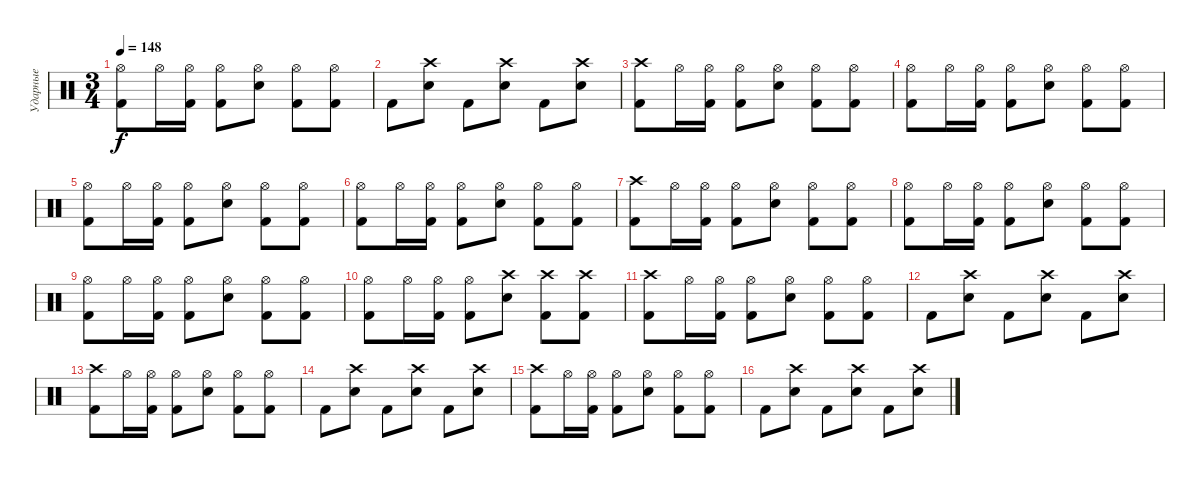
\track ("Ударные" "Ударные") {instrument percussion}
\staff {score}
\articulation defaults
\ts (3 4)
\tempo 148
\clef neutral
\ks c
("Hi-Hat (open)" "Kick (hit) 2").8{dy f} "Hi-Hat (open)".16 ("Hi-Hat (open)" "Kick (hit) 2").16 ("Hi-Hat (open)" "Kick (hit) 2").8 ("Hi-Hat (open)" "Electric Snare (hit)").8 ("Hi-Hat (open)" "Kick (hit) 2").8 ("Hi-Hat (open)" "Kick (hit) 2").8 |
"Kick (hit) 2".8 ("Crash high (hit)" "Electric Snare (hit)").8 "Kick (hit) 2".8 ("Crash high (hit)" "Electric Snare (hit)").8 "Kick (hit) 2".8 ("Crash high (hit)" "Electric Snare (hit)").8 |
("Crash high (hit)" "Kick (hit) 2").8 "Hi-Hat (open)".16 ("Hi-Hat (open)" "Kick (hit) 2").16 ("Hi-Hat (open)" "Kick (hit) 2").8 ("Hi-Hat (open)" "Electric Snare (hit)").8 ("Hi-Hat (open)" "Kick (hit) 2").8 ("Hi-Hat (open)" "Kick (hit) 2").8 |
("Hi-Hat (open)" "Kick (hit) 2").8 "Hi-Hat (open)".16 ("Hi-Hat (open)" "Kick (hit) 2").16 ("Hi-Hat (open)" "Kick (hit) 2").8 ("Hi-Hat (open)" "Electric Snare (hit)").8 ("Hi-Hat (open)" "Kick (hit) 2").8 ("Hi-Hat (open)" "Kick (hit) 2").8 |
("Hi-Hat (open)" "Kick (hit) 2").8 "Hi-Hat (open)".16 ("Hi-Hat (open)" "Kick (hit) 2").16 ("Hi-Hat (open)" "Kick (hit) 2").8 ("Hi-Hat (open)" "Electric Snare (hit)").8 ("Hi-Hat (open)" "Kick (hit) 2").8 ("Hi-Hat (open)" "Kick (hit) 2").8 |
("Hi-Hat (open)" "Kick (hit) 2").8 "Hi-Hat (open)".16 ("Hi-Hat (open)" "Kick (hit) 2").16 ("Hi-Hat (open)" "Kick (hit) 2").8 ("Hi-Hat (open)" "Electric Snare (hit)").8 ("Hi-Hat (open)" "Kick (hit) 2").8 ("Hi-Hat (open)" "Kick (hit) 2").8 |
("Crash high (hit)" "Kick (hit) 2").8 "Hi-Hat (open)".16 ("Hi-Hat (open)" "Kick (hit) 2").16 ("Hi-Hat (open)" "Kick (hit) 2").8 ("Hi-Hat (open)" "Electric Snare (hit)").8 ("Hi-Hat (open)" "Kick (hit) 2").8 ("Hi-Hat (open)" "Kick (hit) 2").8 |
("Hi-Hat (open)" "Kick (hit) 2").8 "Hi-Hat (open)".16 ("Hi-Hat (open)" "Kick (hit) 2").16 ("Hi-Hat (open)" "Kick (hit) 2").8 ("Hi-Hat (open)" "Electric Snare (hit)").8 ("Hi-Hat (open)" "Kick (hit) 2").8 ("Hi-Hat (open)" "Kick (hit) 2").8 |
("Hi-Hat (open)" "Kick (hit) 2").8 "Hi-Hat (open)".16 ("Hi-Hat (open)" "Kick (hit) 2").16 ("Hi-Hat (open)" "Kick (hit) 2").8 ("Hi-Hat (open)" "Electric Snare (hit)").8 ("Hi-Hat (open)" "Kick (hit) 2").8 ("Hi-Hat (open)" "Kick (hit) 2").8 |
("Hi-Hat (open)" "Kick (hit) 2").8 "Hi-Hat (open)".16 ("Hi-Hat (open)" "Kick (hit) 2").16 ("Hi-Hat (open)" "Kick (hit) 2").8 ("Crash high (hit)" "Electric Snare (hit)").8 ("Crash high (hit)" "Kick (hit) 2").8 ("Crash high (hit)" "Kick (hit) 2").8 |
("Crash high (hit)" "Kick (hit) 2").8 "Hi-Hat (open)".16 ("Hi-Hat (open)" "Kick (hit) 2").16 ("Hi-Hat (open)" "Kick (hit) 2").8 ("Hi-Hat (open)" "Electric Snare (hit)").8 ("Hi-Hat (open)" "Kick (hit) 2").8 ("Hi-Hat (open)" "Kick (hit) 2").8 |
"Kick (hit) 2".8 ("Crash high (hit)" "Electric Snare (hit)").8 "Kick (hit) 2".8 ("Crash high (hit)" "Electric Snare (hit)").8 "Kick (hit) 2".8 ("Crash high (hit)" "Electric Snare (hit)").8 |
("Crash high (hit)" "Kick (hit) 2").8 "Hi-Hat (open)".16 ("Hi-Hat (open)" "Kick (hit) 2").16 ("Hi-Hat (open)" "Kick (hit) 2").8 ("Hi-Hat (open)" "Electric Snare (hit)").8 ("Hi-Hat (open)" "Kick (hit) 2").8 ("Hi-Hat (open)" "Kick (hit) 2").8 |
"Kick (hit) 2".8 ("Crash high (hit)" "Electric Snare (hit)").8 "Kick (hit) 2".8 ("Crash high (hit)" "Electric Snare (hit)").8 "Kick (hit) 2".8 ("Crash high (hit)" "Electric Snare (hit)").8 |
("Crash high (hit)" "Kick (hit) 2").8 "Hi-Hat (open)".16 ("Hi-Hat (open)" "Kick (hit) 2").16 ("Hi-Hat (open)" "Kick (hit) 2").8 ("Hi-Hat (open)" "Electric Snare (hit)").8 ("Hi-Hat (open)" "Kick (hit) 2").8 ("Hi-Hat (open)" "Kick (hit) 2").8 |
"Kick (hit) 2".8 ("Crash high (hit)" "Electric Snare (hit)").8 "Kick (hit) 2".8 ("Crash high (hit)" "Electric Snare (hit)").8 "Kick (hit) 2".8 ("Crash high (hit)" "Electric Snare (hit)").8
